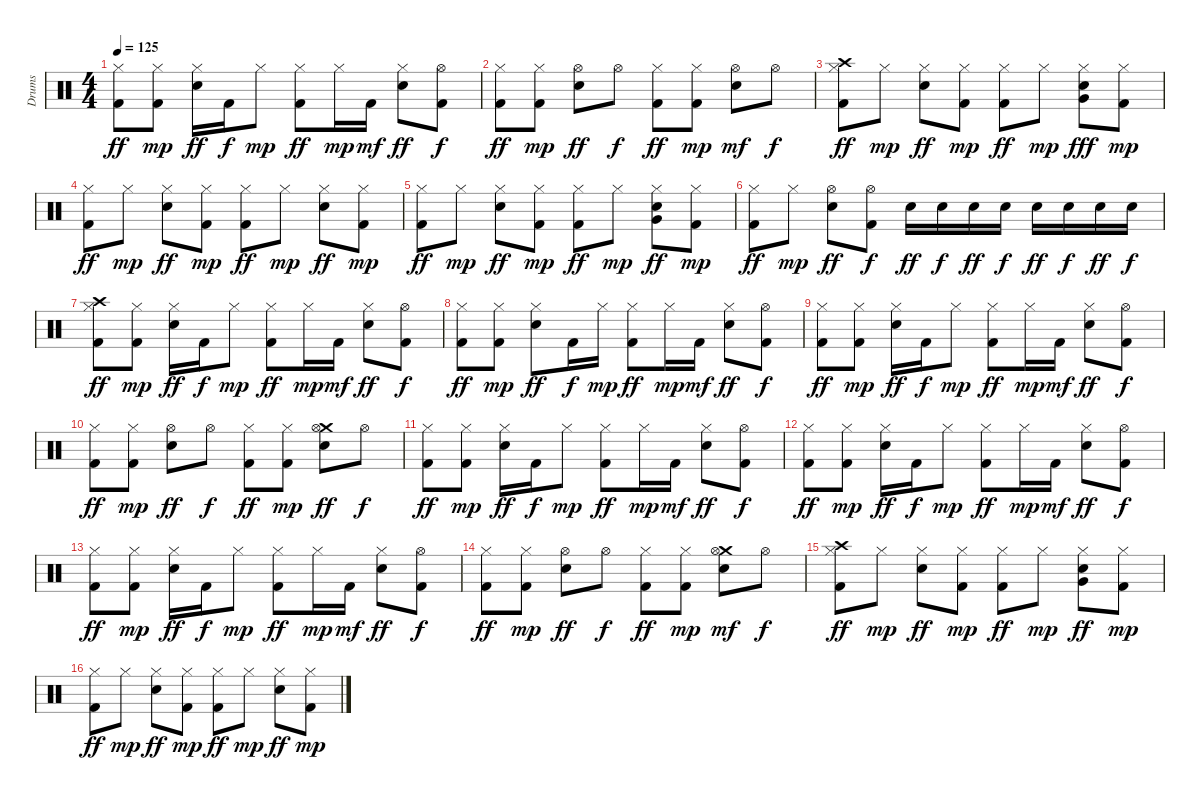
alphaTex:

\track ("Drums" "Drums") {instrument percussion}
\staff {score}
\articulation defaults
\ts (4 4)
\tempo 125
\clef neutral
\ks c
("Hi-Hat (closed)" "Kick (hit) 2").8{dy ff} ("Hi-Hat (closed)" "Kick (hit) 2").8{dy mp} ("Snare (hit) 2" "Hi-Hat (closed)").16{dy ff} "Kick (hit) 2".16{dy f} "Hi-Hat (closed)".8{dy mp} ("Hi-Hat (closed)" "Kick (hit) 2").8{dy ff} "Hi-Hat (closed)".16{dy mp} "Kick (hit) 2".16{dy mf} ("Snare (hit) 2" "Hi-Hat (closed)").8{dy ff} ("Kick (hit) 2" "Hi-Hat (open)").8{dy f} |
("Hi-Hat (closed)" "Kick (hit) 2").8{dy ff} ("Kick (hit) 2" "Hi-Hat (closed)").8{dy mp} ("Hi-Hat (open)" "Snare (hit) 2").8{dy ff} "Hi-Hat (open)".8{dy f} ("Kick (hit) 2" "Hi-Hat (closed)").8{dy ff} ("Kick (hit) 2" "Hi-Hat (closed)").8{dy mp} ("Snare (hit) 2" "Hi-Hat (open)").8{dy mf} "Hi-Hat (open)".8{dy f} |
("Hi-Hat (closed)" "Kick (hit) 2" "Crash high (hit)").8{dy ff} "Hi-Hat (closed)".8{dy mp} ("Hi-Hat (closed)" "Snare (hit) 2").8{dy ff} ("Kick (hit) 2" "Hi-Hat (closed)").8{dy mp} ("Hi-Hat (closed)" "Kick (hit) 2").8{dy ff} "Hi-Hat (closed)".8{dy mp} ("Snare (hit) 2" "Hi-Hat (closed)" "Very Low Tom (hit)").8{dy fff} ("Kick (hit) 2" "Hi-Hat (closed)").8{dy mp} |
("Kick (hit) 2" "Hi-Hat (closed)").8{dy ff} "Hi-Hat (closed)".8{dy mp} ("Hi-Hat (closed)" "Snare (hit) 2").8{dy ff} ("Kick (hit) 2" "Hi-Hat (closed)").8{dy mp} ("Kick (hit) 2" "Hi-Hat (closed)").8{dy ff} "Hi-Hat (closed)".8{dy mp} ("Snare (hit) 2" "Hi-Hat (closed)").8{dy ff} ("Kick (hit) 2" "Hi-Hat (closed)").8{dy mp} |
("Kick (hit) 2" "Hi-Hat (closed)").8{dy ff} "Hi-Hat (closed)".8{dy mp} ("Snare (hit) 2" "Hi-Hat (closed)").8{dy ff} ("Kick (hit) 2" "Hi-Hat (closed)").8{dy mp} ("Hi-Hat (closed)" "Kick (hit) 2").8{dy ff} "Hi-Hat (closed)".8{dy mp} ("Very Low Tom (hit)" "Hi-Hat (closed)" "Snare (hit) 2").8{dy ff} ("Kick (hit) 2" "Hi-Hat (closed)").8{dy mp} |
("Kick (hit) 2" "Hi-Hat (closed)").8{dy ff} "Hi-Hat (closed)".8{dy mp} ("Snare (hit) 2" "Hi-Hat (open)").8{dy ff} ("Kick (hit) 2" "Hi-Hat (open)").8{dy f} "Snare (hit) 2".16{dy ff} "Snare (hit) 2".16{dy f} "Snare (hit) 2".16{dy ff} "Snare (hit) 2".16{dy f} "Snare (hit) 2".16{dy ff} "Snare (hit) 2".16{dy f} "Snare (hit) 2".16{dy ff} "Snare (hit) 2".16{dy f} |
("Kick (hit) 2" "Hi-Hat (closed)" "Crash high (hit)").8{dy ff} ("Hi-Hat (closed)" "Kick (hit) 2").8{dy mp} ("Snare (hit) 2" "Hi-Hat (closed)").16{dy ff} "Kick (hit) 2".16{dy f} "Hi-Hat (closed)".8{dy mp} ("Hi-Hat (closed)" "Kick (hit) 2").8{dy ff} "Hi-Hat (closed)".16{dy mp} "Kick (hit) 2".16{dy mf} ("Snare (hit) 2" "Hi-Hat (closed)").8{dy ff} ("Hi-Hat (open)" "Kick (hit) 2").8{dy f} |
("Kick (hit) 2" "Hi-Hat (closed)").8{dy ff} ("Kick (hit) 2" "Hi-Hat (closed)").8{dy mp} ("Hi-Hat (closed)" "Snare (hit) 2").8{dy ff} "Kick (hit) 2".16{dy f} "Hi-Hat (closed)".16{dy mp} ("Hi-Hat (closed)" "Kick (hit) 2").8{dy ff} "Hi-Hat (closed)".16{dy mp} "Kick (hit) 2".16{dy mf} ("Hi-Hat (closed)" "Snare (hit) 2").8{dy ff} ("Kick (hit) 2" "Hi-Hat (open)").8{dy f} |
("Hi-Hat (closed)" "Kick (hit) 2").8{dy ff} ("Hi-Hat (closed)" "Kick (hit) 2").8{dy mp} ("Snare (hit) 2" "Hi-Hat (closed)").16{dy ff} "Kick (hit) 2".16{dy f} "Hi-Hat (closed)".8{dy mp} ("Kick (hit) 2" "Hi-Hat (closed)").8{dy ff} "Hi-Hat (closed)".16{dy mp} "Kick (hit) 2".16{dy mf} ("Hi-Hat (closed)" "Snare (hit) 2").8{dy ff} ("Kick (hit) 2" "Hi-Hat (open)").8{dy f} |
("Hi-Hat (closed)" "Kick (hit) 2").8{dy ff} ("Kick (hit) 2" "Hi-Hat (closed)").8{dy mp} ("Hi-Hat (open)" "Snare (hit) 2").8{dy ff} "Hi-Hat (open)".8{dy f} ("Hi-Hat (closed)" "Kick (hit) 2").8{dy ff} ("Kick (hit) 2" "Hi-Hat (closed)").8{dy mp} ("Crash medium (hit)" "Hi-Hat (open)" "Snare (hit) 2").8{dy ff} "Hi-Hat (open)".8{dy f} |
("Hi-Hat (closed)" "Kick (hit) 2").8{dy ff} ("Hi-Hat (closed)" "Kick (hit) 2").8{dy mp} ("Hi-Hat (closed)" "Snare (hit) 2").16{dy ff} "Kick (hit) 2".16{dy f} "Hi-Hat (closed)".8{dy mp} ("Kick (hit) 2" "Hi-Hat (closed)").8{dy ff} "Hi-Hat (closed)".16{dy mp} "Kick (hit) 2".16{dy mf} ("Hi-Hat (closed)" "Snare (hit) 2").8{dy ff} ("Hi-Hat (open)" "Kick (hit) 2").8{dy f} |
("Kick (hit) 2" "Hi-Hat (closed)").8{dy ff} ("Kick (hit) 2" "Hi-Hat (closed)").8{dy mp} ("Hi-Hat (closed)" "Snare (hit) 2").16{dy ff} "Kick (hit) 2".16{dy f} "Hi-Hat (closed)".8{dy mp} ("Kick (hit) 2" "Hi-Hat (closed)").8{dy ff} "Hi-Hat (closed)".16{dy mp} "Kick (hit) 2".16{dy mf} ("Snare (hit) 2" "Hi-Hat (closed)").8{dy ff} ("Kick (hit) 2" "Hi-Hat (open)").8{dy f} |
("Kick (hit) 2" "Hi-Hat (closed)").8{dy ff} ("Hi-Hat (closed)" "Kick (hit) 2").8{dy mp} ("Snare (hit) 2" "Hi-Hat (closed)").16{dy ff} "Kick (hit) 2".16{dy f} "Hi-Hat (closed)".8{dy mp} ("Kick (hit) 2" "Hi-Hat (closed)").8{dy ff} "Hi-Hat (closed)".16{dy mp} "Kick (hit) 2".16{dy mf} ("Hi-Hat (closed)" "Snare (hit) 2").8{dy ff} ("Kick (hit) 2" "Hi-Hat (open)").8{dy f} |
("Kick (hit) 2" "Hi-Hat (closed)").8{dy ff} ("Kick (hit) 2" "Hi-Hat (closed)").8{dy mp} ("Hi-Hat (open)" "Snare (hit) 2").8{dy ff} "Hi-Hat (open)".8{dy f} ("Kick (hit) 2" "Hi-Hat (closed)").8{dy ff} ("Kick (hit) 2" "Hi-Hat (closed)").8{dy mp} ("Snare (hit) 2" "Crash medium (hit)" "Hi-Hat (open)").8{dy mf} "Hi-Hat (open)".8{dy f} |
("Crash high (hit)" "Kick (hit) 2" "Hi-Hat (closed)").8{dy ff} "Hi-Hat (closed)".8{dy mp} ("Hi-Hat (closed)" "Snare (hit) 2").8{dy ff} ("Kick (hit) 2" "Hi-Hat (closed)").8{dy mp} ("Hi-Hat (closed)" "Kick (hit) 2").8{dy ff} "Hi-Hat (closed)".8{dy mp} ("Hi-Hat (closed)" "Very Low Tom (hit)" "Snare (hit) 2").8{dy ff} ("Kick (hit) 2" "Hi-Hat (closed)").8{dy mp} |
("Hi-Hat (closed)" "Kick (hit) 2").8{dy ff} "Hi-Hat (closed)".8{dy mp} ("Hi-Hat (closed)" "Snare (hit) 2").8{dy ff} ("Hi-Hat (closed)" "Kick (hit) 2").8{dy mp} ("Hi-Hat (closed)" "Kick (hit) 2").8{dy ff} "Hi-Hat (closed)".8{dy mp} ("Snare (hit) 2" "Hi-Hat (closed)").8{dy ff} ("Kick (hit) 2" "Hi-Hat (closed)").8{dy mp}
